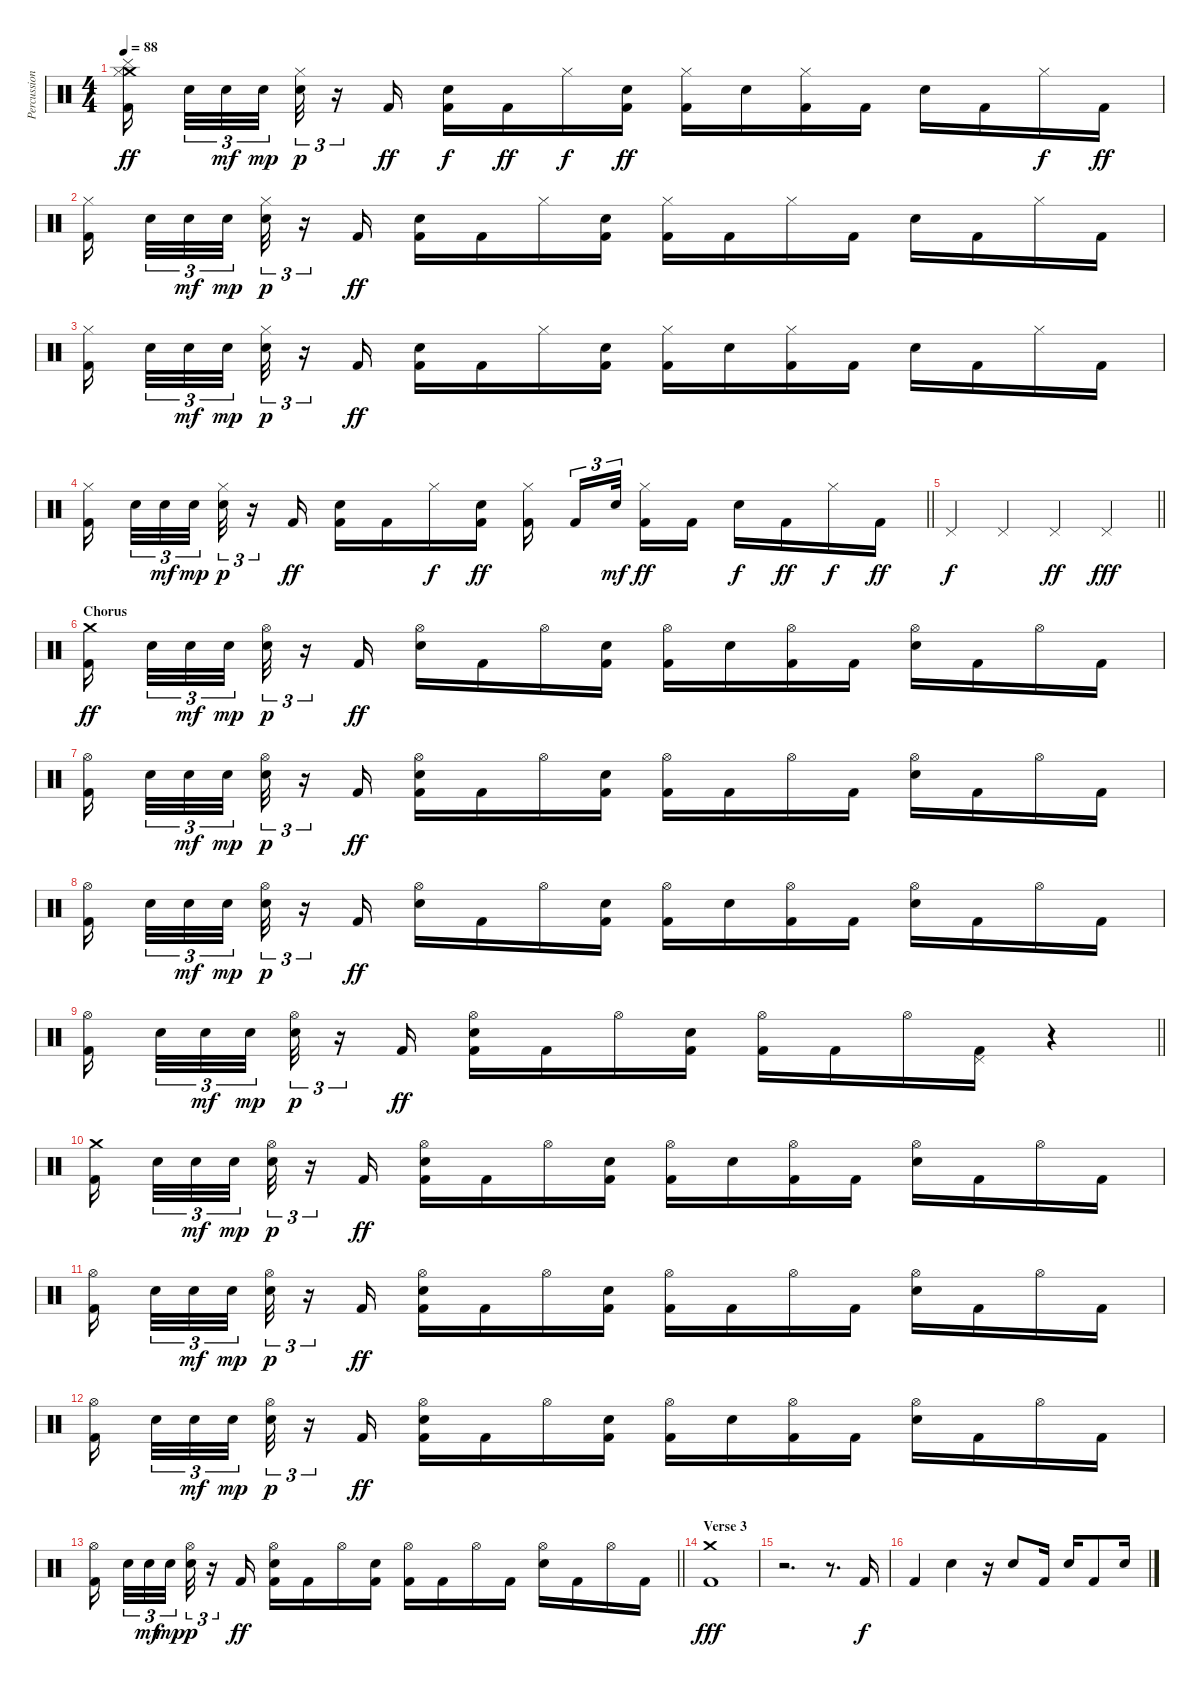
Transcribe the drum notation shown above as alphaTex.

\track ("Percussion" "Percussion") {instrument percussion}
\staff {score}
\articulation defaults
\ts (4 4)
\tempo 88
\clef neutral
\ks c
("Crash medium (hit)" "Cymbal (hit)" "Hi-Hat (closed)" "Kick (hit) 2").16{dy ff beam splitsecondary} "Snare (hit) 2".32{tu (3 2)} "Snare (hit) 2".32{tu (3 2) dy mf} "Snare (hit) 2".32{tu (3 2) dy mp beam splitsecondary} ("Hi-Hat (closed)" "Snare (hit) 2").32{tu (3 2) dy p} r.16{tu (3 2)} "Kick (hit) 2".16{dy ff} ("Snare (hit) 2" "Kick (hit) 2").16{dy f} "Kick (hit) 2".16{dy ff} "Hi-Hat (closed)".16{dy f} ("Electric Snare (hit)" "Kick (hit) 2").16{dy ff} ("Hi-Hat (closed)" "Kick (hit) 2").16 "Snare (hit) 2".16 ("Hi-Hat (closed)" "Kick (hit) 2").16 "Kick (hit) 2".16 "Electric Snare (hit)".16 "Kick (hit) 2".16 "Hi-Hat (closed)".16{dy f} "Kick (hit) 2".16{dy ff} |
("Hi-Hat (closed)" "Kick (hit) 2").16{beam splitsecondary} "Snare (hit) 2".32{tu (3 2)} "Snare (hit) 2".32{tu (3 2) dy mf} "Snare (hit) 2".32{tu (3 2) dy mp beam splitsecondary} ("Hi-Hat (closed)" "Snare (hit) 2").32{tu (3 2) dy p} r.16{tu (3 2)} "Kick (hit) 2".16{dy ff} ("Electric Snare (hit)" "Kick (hit) 2").16 "Kick (hit) 2".16 "Hi-Hat (closed)".16 ("Snare (hit) 2" "Kick (hit) 2").16 ("Hi-Hat (closed)" "Kick (hit) 2").16 "Kick (hit) 2".16 "Hi-Hat (closed)".16 "Kick (hit) 2".16 "Electric Snare (hit)".16 "Kick (hit) 2".16 "Hi-Hat (closed)".16 "Kick (hit) 2".16 |
("Hi-Hat (closed)" "Kick (hit) 2").16{beam splitsecondary} "Snare (hit) 2".32{tu (3 2)} "Snare (hit) 2".32{tu (3 2) dy mf} "Snare (hit) 2".32{tu (3 2) dy mp beam splitsecondary} ("Hi-Hat (closed)" "Snare (hit) 2").32{tu (3 2) dy p} r.16{tu (3 2)} "Kick (hit) 2".16{dy ff} ("Snare (hit) 2" "Kick (hit) 2").16 "Kick (hit) 2".16 "Hi-Hat (closed)".16 ("Electric Snare (hit)" "Kick (hit) 2").16 ("Hi-Hat (closed)" "Kick (hit) 2").16 "Snare (hit) 2".16 ("Hi-Hat (closed)" "Kick (hit) 2").16 "Kick (hit) 2".16 "Electric Snare (hit)".16 "Kick (hit) 2".16 "Hi-Hat (closed)".16 "Kick (hit) 2".16 |
\barLineRight lightlight
("Hi-Hat (closed)" "Kick (hit) 2").16{beam splitsecondary} "Snare (hit) 2".32{tu (3 2)} "Snare (hit) 2".32{tu (3 2) dy mf} "Snare (hit) 2".32{tu (3 2) dy mp beam splitsecondary} ("Hi-Hat (closed)" "Snare (hit) 2").32{tu (3 2) dy p} r.16{tu (3 2)} "Kick (hit) 2".16{dy ff} ("Electric Snare (hit)" "Kick (hit) 2").16 "Kick (hit) 2".16 "Hi-Hat (closed)".16{dy f} ("Snare (hit) 2" "Kick (hit) 2").16{dy ff} ("Hi-Hat (closed)" "Kick (hit) 2").16{beam splitsecondary} "Kick (hit) 2".16{tu (3 2)} "Snare (hit) 2".32{tu (3 2) dy mf beam splitsecondary} ("Hi-Hat (closed)" "Kick (hit) 2").16{dy ff} "Kick (hit) 2".16 "Snare (hit) 2".16{dy f} "Kick (hit) 2".16{dy ff} "Hi-Hat (closed)".16{dy f} "Kick (hit) 2".16{dy ff} |
\barLineRight lightlight "Pedal Hi-Hat (hit)".4{dy f} "Pedal Hi-Hat (hit)".4 "Pedal Hi-Hat (hit)".4{dy ff} "Pedal Hi-Hat (hit)".4{dy fff}
|
\section ("" "Chorus")
("Crash medium (hit)" "Kick (hit) 2").16{dy ff beam splitsecondary} "Snare (hit) 2".32{tu (3 2)} "Snare (hit) 2".32{tu (3 2) dy mf} "Snare (hit) 2".32{tu (3 2) dy mp beam splitsecondary} ("Hi-Hat (open)" "Snare (hit) 2").32{tu (3 2) dy p} r.16{tu (3 2)} "Kick (hit) 2".16{dy ff} ("Hi-Hat (open)" "Snare (hit) 2").16 "Kick (hit) 2".16 "Hi-Hat (open)".16 ("Electric Snare (hit)" "Kick (hit) 2").16 ("Hi-Hat (open)" "Kick (hit) 2").16 "Snare (hit) 2".16 ("Hi-Hat (open)" "Kick (hit) 2").16 "Kick (hit) 2".16 ("Hi-Hat (open)" "Electric Snare (hit)").16 "Kick (hit) 2".16 "Hi-Hat (open)".16 "Kick (hit) 2".16 |
("Hi-Hat (open)" "Kick (hit) 2").16{beam splitsecondary} "Snare (hit) 2".32{tu (3 2)} "Snare (hit) 2".32{tu (3 2) dy mf} "Snare (hit) 2".32{tu (3 2) dy mp beam splitsecondary} ("Hi-Hat (open)" "Snare (hit) 2").32{tu (3 2) dy p} r.16{tu (3 2)} "Kick (hit) 2".16{dy ff} ("Hi-Hat (open)" "Electric Snare (hit)" "Kick (hit) 2").16 "Kick (hit) 2".16 "Hi-Hat (open)".16 ("Snare (hit) 2" "Kick (hit) 2").16 ("Hi-Hat (open)" "Kick (hit) 2").16 "Kick (hit) 2".16 "Hi-Hat (open)".16 "Kick (hit) 2".16 ("Hi-Hat (open)" "Electric Snare (hit)").16 "Kick (hit) 2".16 "Hi-Hat (open)".16 "Kick (hit) 2".16 |
("Hi-Hat (open)" "Kick (hit) 2").16{beam splitsecondary} "Snare (hit) 2".32{tu (3 2)} "Snare (hit) 2".32{tu (3 2) dy mf} "Snare (hit) 2".32{tu (3 2) dy mp beam splitsecondary} ("Hi-Hat (open)" "Snare (hit) 2").32{tu (3 2) dy p} r.16{tu (3 2)} "Kick (hit) 2".16{dy ff} ("Hi-Hat (open)" "Snare (hit) 2").16 "Kick (hit) 2".16 "Hi-Hat (open)".16 ("Electric Snare (hit)" "Kick (hit) 2").16 ("Hi-Hat (open)" "Kick (hit) 2").16 "Snare (hit) 2".16 ("Hi-Hat (open)" "Kick (hit) 2").16 "Kick (hit) 2".16 ("Hi-Hat (open)" "Electric Snare (hit)").16 "Kick (hit) 2".16 "Hi-Hat (open)".16 "Kick (hit) 2".16 |
\barLineRight lightlight
("Hi-Hat (open)" "Kick (hit) 2").16{beam splitsecondary} "Snare (hit) 2".32{tu (3 2)} "Snare (hit) 2".32{tu (3 2) dy mf} "Snare (hit) 2".32{tu (3 2) dy mp beam splitsecondary} ("Hi-Hat (open)" "Snare (hit) 2").32{tu (3 2) dy p} r.16{tu (3 2)} "Kick (hit) 2".16{dy ff} ("Hi-Hat (open)" "Electric Snare (hit)" "Kick (hit) 2").16 "Kick (hit) 2".16 "Hi-Hat (open)".16 ("Snare (hit) 2" "Kick (hit) 2").16 ("Hi-Hat (open)" "Kick (hit) 2").16 "Kick (hit) 2".16 "Hi-Hat (open)".16 ("Pedal Hi-Hat (hit)" "Kick (hit) 2").16 r.4 |
("Crash medium (hit)" "Kick (hit) 2").16{beam splitsecondary} "Snare (hit) 2".32{tu (3 2)} "Snare (hit) 2".32{tu (3 2) dy mf} "Snare (hit) 2".32{tu (3 2) dy mp beam splitsecondary} ("Hi-Hat (open)" "Snare (hit) 2").32{tu (3 2) dy p} r.16{tu (3 2)} "Kick (hit) 2".16{dy ff} ("Hi-Hat (open)" "Snare (hit) 2" "Kick (hit) 2").16 "Kick (hit) 2".16 "Hi-Hat (open)".16 ("Electric Snare (hit)" "Kick (hit) 2").16 ("Hi-Hat (open)" "Kick (hit) 2").16 "Snare (hit) 2".16 ("Hi-Hat (open)" "Kick (hit) 2").16 "Kick (hit) 2".16 ("Hi-Hat (open)" "Electric Snare (hit)").16 "Kick (hit) 2".16 "Hi-Hat (open)".16 "Kick (hit) 2".16 |
("Hi-Hat (open)" "Kick (hit) 2").16{beam splitsecondary} "Snare (hit) 2".32{tu (3 2)} "Snare (hit) 2".32{tu (3 2) dy mf} "Snare (hit) 2".32{tu (3 2) dy mp beam splitsecondary} ("Hi-Hat (open)" "Snare (hit) 2").32{tu (3 2) dy p} r.16{tu (3 2)} "Kick (hit) 2".16{dy ff} ("Hi-Hat (open)" "Electric Snare (hit)" "Kick (hit) 2").16 "Kick (hit) 2".16 "Hi-Hat (open)".16 ("Snare (hit) 2" "Kick (hit) 2").16 ("Hi-Hat (open)" "Kick (hit) 2").16 "Kick (hit) 2".16 "Hi-Hat (open)".16 "Kick (hit) 2".16 ("Hi-Hat (open)" "Electric Snare (hit)").16 "Kick (hit) 2".16 "Hi-Hat (open)".16 "Kick (hit) 2".16 |
("Hi-Hat (open)" "Kick (hit) 2").16{beam splitsecondary} "Snare (hit) 2".32{tu (3 2)} "Snare (hit) 2".32{tu (3 2) dy mf} "Snare (hit) 2".32{tu (3 2) dy mp beam splitsecondary} ("Hi-Hat (open)" "Snare (hit) 2").32{tu (3 2) dy p} r.16{tu (3 2)} "Kick (hit) 2".16{dy ff} ("Hi-Hat (open)" "Snare (hit) 2" "Kick (hit) 2").16 "Kick (hit) 2".16 "Hi-Hat (open)".16 ("Electric Snare (hit)" "Kick (hit) 2").16 ("Hi-Hat (open)" "Kick (hit) 2").16 "Snare (hit) 2".16 ("Hi-Hat (open)" "Kick (hit) 2").16 "Kick (hit) 2".16 ("Hi-Hat (open)" "Electric Snare (hit)").16 "Kick (hit) 2".16 "Hi-Hat (open)".16 "Kick (hit) 2".16 |
\barLineRight lightlight
("Hi-Hat (open)" "Kick (hit) 2").16{beam splitsecondary} "Snare (hit) 2".32{tu (3 2)} "Snare (hit) 2".32{tu (3 2) dy mf} "Snare (hit) 2".32{tu (3 2) dy mp beam splitsecondary} ("Hi-Hat (open)" "Snare (hit) 2").32{tu (3 2) dy p} r.16{tu (3 2)} "Kick (hit) 2".16{dy ff} ("Hi-Hat (open)" "Electric Snare (hit)" "Kick (hit) 2").16 "Kick (hit) 2".16 "Hi-Hat (open)".16 ("Snare (hit) 2" "Kick (hit) 2").16 ("Hi-Hat (open)" "Kick (hit) 2").16 "Kick (hit) 2".16 "Hi-Hat (open)".16 "Kick (hit) 2".16 ("Hi-Hat (open)" "Electric Snare (hit)").16 "Kick (hit) 2".16 "Hi-Hat (open)".16 "Kick (hit) 2".16 |
\section ("" "Verse 3")
("Crash medium (hit)" "Kick (hit) 2").1{dy fff} |
r.2{d} r.8{d} "Kick (hit) 2".16{dy f} |
"Kick (hit) 2".4 "Snare (hit) 2".4 r.16 "Snare (hit) 2".8 "Kick (hit) 2".16 "Snare (hit) 2".16 "Kick (hit) 2".8 "Snare (hit) 2".16
